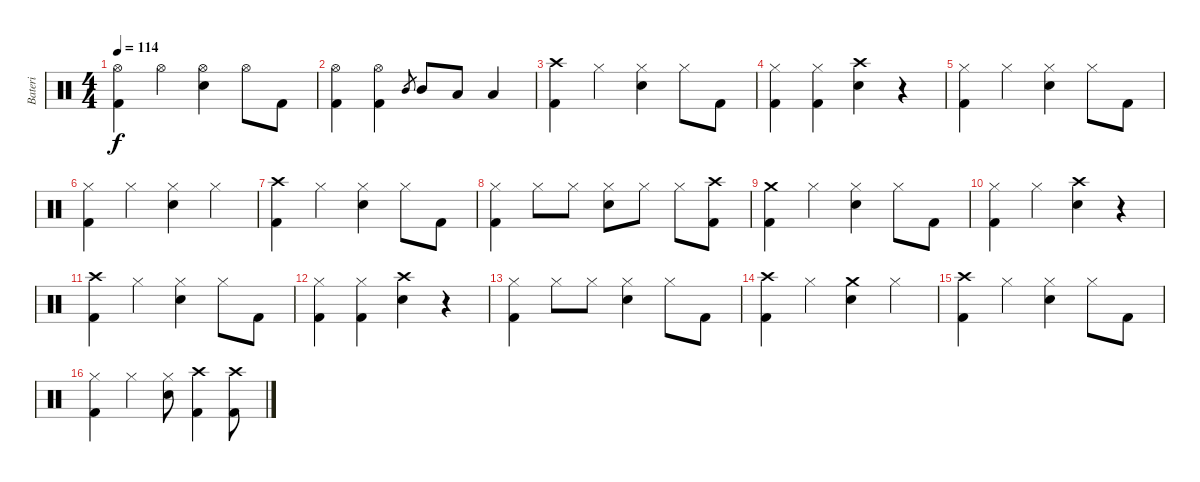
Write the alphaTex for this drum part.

\track ("Bateri" "Bateri") {instrument percussion}
\staff {score}
\articulation defaults
\ts (4 4)
\tempo 114
\clef neutral
\ks c
("Hi-Hat (open)" "Kick (hit) 2").4{dy f} "Hi-Hat (open)".4 ("Hi-Hat (open)" "Snare (hit) 2").4 "Hi-Hat (open)".8 "Kick (hit) 2".8 |
("Hi-Hat (open)" "Kick (hit) 2").4 ("Hi-Hat (open)" "Kick (hit) 2").4 "Mid Tom (hit)".8{gr} "Mid Tom (hit)".8 "Low Tom (hit)".8 "Low Floor Tom (hit)".4 |
("Crash high (hit)" "Kick (hit) 2").4 "Hi-Hat (closed)".4 ("Hi-Hat (closed)" "Snare (hit) 2").4 "Hi-Hat (closed)".8 "Kick (hit) 2".8 |
("Hi-Hat (closed)" "Kick (hit) 2").4 ("Hi-Hat (closed)" "Kick (hit) 2").4 ("Crash high (hit)" "Snare (hit) 2").4 r.4 |
("Hi-Hat (closed)" "Kick (hit) 2").4 "Hi-Hat (closed)".4 ("Hi-Hat (closed)" "Snare (hit) 2").4 "Hi-Hat (closed)".8 "Kick (hit) 2".8 |
("Hi-Hat (closed)" "Kick (hit) 2").4 "Hi-Hat (closed)".4 ("Hi-Hat (closed)" "Snare (hit) 2").4 "Hi-Hat (closed)".4 |
("Crash high (hit)" "Kick (hit) 2").4 "Hi-Hat (closed)".4 ("Hi-Hat (closed)" "Snare (hit) 2").4 "Hi-Hat (closed)".8 "Kick (hit) 2".8 |
("Hi-Hat (closed)" "Kick (hit) 2").4 "Hi-Hat (closed)".8 "Hi-Hat (closed)".8 ("Hi-Hat (closed)" "Snare (hit) 2").8 "Hi-Hat (closed)".8 "Hi-Hat (closed)".8 ("Crash high (hit)" "Kick (hit) 2").8 |
("Crash medium (hit)" "Kick (hit) 2").4 "Hi-Hat (closed)".4 ("Hi-Hat (closed)" "Snare (hit) 2").4 "Hi-Hat (closed)".8 "Kick (hit) 2".8 |
("Hi-Hat (closed)" "Kick (hit) 2").4 "Hi-Hat (closed)".4 ("Crash high (hit)" "Snare (hit) 2").4 r.4 |
("Crash high (hit)" "Kick (hit) 2").4 "Hi-Hat (closed)".4 ("Hi-Hat (closed)" "Snare (hit) 2").4 "Hi-Hat (closed)".8 "Kick (hit) 2".8 |
("Hi-Hat (closed)" "Kick (hit) 2").4 ("Hi-Hat (closed)" "Kick (hit) 2").4 ("Crash high (hit)" "Snare (hit) 2").4 r.4 |
("Hi-Hat (closed)" "Kick (hit) 2").4 "Hi-Hat (closed)".8 "Hi-Hat (closed)".8 ("Hi-Hat (closed)" "Snare (hit) 2").4 "Hi-Hat (closed)".8 "Kick (hit) 2".8 |
("Crash high (hit)" "Kick (hit) 2").4 "Hi-Hat (closed)".4 ("Crash medium (hit)" "Snare (hit) 2").4 "Hi-Hat (closed)".4 |
("Crash high (hit)" "Kick (hit) 2").4 "Hi-Hat (closed)".4 ("Hi-Hat (closed)" "Snare (hit) 2").4 "Hi-Hat (closed)".8 "Kick (hit) 2".8 |
("Hi-Hat (closed)" "Kick (hit) 2").4 "Hi-Hat (closed)".4 ("Hi-Hat (closed)" "Snare (hit) 2").8 ("Crash high (hit)" "Kick (hit) 2").4 ("Crash high (hit)" "Kick (hit) 2").8
